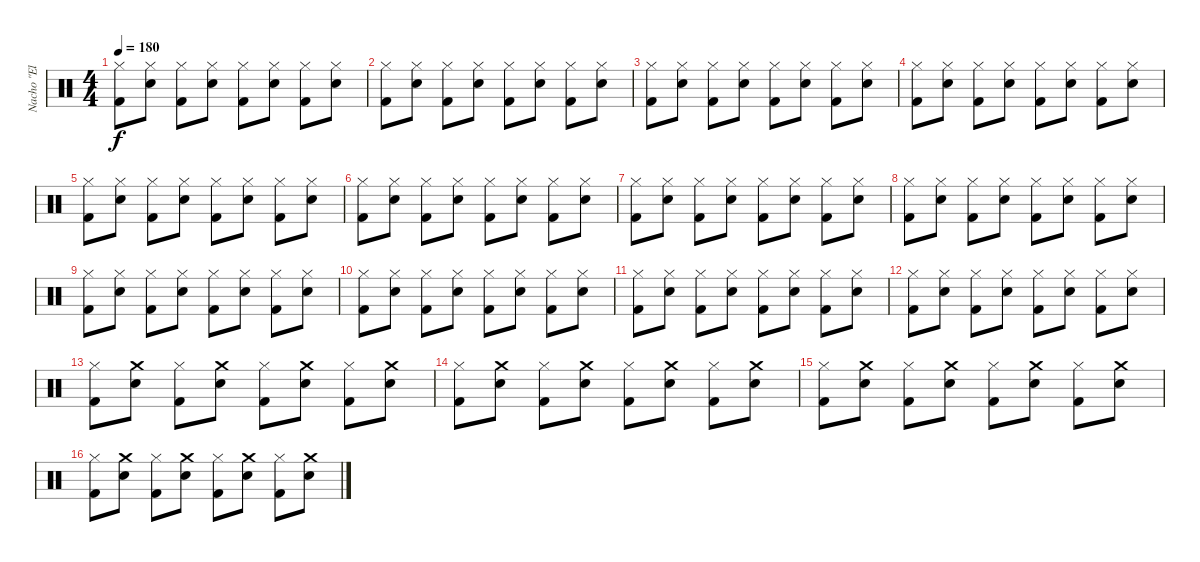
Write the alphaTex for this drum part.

\track ("Nacho \"El Implacable\"Gonzales" "Nacho \"El ") {instrument percussion}
\staff {score}
\articulation defaults
\ts (4 4)
\tempo 180
\clef neutral
\ks c
("Hi-Hat (closed)" "Kick (hit) 2").8{dy f} ("Hi-Hat (closed)" "Electric Snare (hit)").8 ("Hi-Hat (closed)" "Kick (hit) 2").8 ("Hi-Hat (closed)" "Electric Snare (hit)").8 ("Hi-Hat (closed)" "Kick (hit) 2").8 ("Hi-Hat (closed)" "Electric Snare (hit)").8 ("Hi-Hat (closed)" "Kick (hit) 2").8 ("Hi-Hat (closed)" "Electric Snare (hit)").8 |
("Hi-Hat (closed)" "Kick (hit) 2").8 ("Hi-Hat (closed)" "Electric Snare (hit)").8 ("Hi-Hat (closed)" "Kick (hit) 2").8 ("Hi-Hat (closed)" "Electric Snare (hit)").8 ("Hi-Hat (closed)" "Kick (hit) 2").8 ("Hi-Hat (closed)" "Electric Snare (hit)").8 ("Hi-Hat (closed)" "Kick (hit) 2").8 ("Hi-Hat (closed)" "Electric Snare (hit)").8 |
("Hi-Hat (closed)" "Kick (hit) 2").8 ("Hi-Hat (closed)" "Electric Snare (hit)").8 ("Hi-Hat (closed)" "Kick (hit) 2").8 ("Hi-Hat (closed)" "Electric Snare (hit)").8 ("Hi-Hat (closed)" "Kick (hit) 2").8 ("Hi-Hat (closed)" "Electric Snare (hit)").8 ("Hi-Hat (closed)" "Kick (hit) 2").8 ("Hi-Hat (closed)" "Electric Snare (hit)").8 |
("Hi-Hat (closed)" "Kick (hit) 2").8 ("Hi-Hat (closed)" "Electric Snare (hit)").8 ("Hi-Hat (closed)" "Kick (hit) 2").8 ("Hi-Hat (closed)" "Electric Snare (hit)").8 ("Hi-Hat (closed)" "Kick (hit) 2").8 ("Hi-Hat (closed)" "Electric Snare (hit)").8 ("Hi-Hat (closed)" "Kick (hit) 2").8 ("Hi-Hat (closed)" "Electric Snare (hit)").8 |
("Hi-Hat (closed)" "Kick (hit) 2").8 ("Hi-Hat (closed)" "Electric Snare (hit)").8 ("Hi-Hat (closed)" "Kick (hit) 2").8 ("Hi-Hat (closed)" "Electric Snare (hit)").8 ("Hi-Hat (closed)" "Kick (hit) 2").8 ("Hi-Hat (closed)" "Electric Snare (hit)").8 ("Hi-Hat (closed)" "Kick (hit) 2").8 ("Hi-Hat (closed)" "Electric Snare (hit)").8 |
("Hi-Hat (closed)" "Kick (hit) 2").8 ("Hi-Hat (closed)" "Electric Snare (hit)").8 ("Hi-Hat (closed)" "Kick (hit) 2").8 ("Hi-Hat (closed)" "Electric Snare (hit)").8 ("Hi-Hat (closed)" "Kick (hit) 2").8 ("Hi-Hat (closed)" "Electric Snare (hit)").8 ("Hi-Hat (closed)" "Kick (hit) 2").8 ("Hi-Hat (closed)" "Electric Snare (hit)").8 |
("Hi-Hat (closed)" "Kick (hit) 2").8 ("Hi-Hat (closed)" "Electric Snare (hit)").8 ("Hi-Hat (closed)" "Kick (hit) 2").8 ("Hi-Hat (closed)" "Electric Snare (hit)").8 ("Hi-Hat (closed)" "Kick (hit) 2").8 ("Hi-Hat (closed)" "Electric Snare (hit)").8 ("Hi-Hat (closed)" "Kick (hit) 2").8 ("Hi-Hat (closed)" "Electric Snare (hit)").8 |
("Hi-Hat (closed)" "Kick (hit) 2").8 ("Hi-Hat (closed)" "Electric Snare (hit)").8 ("Hi-Hat (closed)" "Kick (hit) 2").8 ("Hi-Hat (closed)" "Electric Snare (hit)").8 ("Hi-Hat (closed)" "Kick (hit) 2").8 ("Hi-Hat (closed)" "Electric Snare (hit)").8 ("Hi-Hat (closed)" "Kick (hit) 2").8 ("Hi-Hat (closed)" "Electric Snare (hit)").8 |
("Hi-Hat (closed)" "Kick (hit) 2").8 ("Hi-Hat (closed)" "Electric Snare (hit)").8 ("Hi-Hat (closed)" "Kick (hit) 2").8 ("Hi-Hat (closed)" "Electric Snare (hit)").8 ("Hi-Hat (closed)" "Kick (hit) 2").8 ("Hi-Hat (closed)" "Electric Snare (hit)").8 ("Hi-Hat (closed)" "Kick (hit) 2").8 ("Hi-Hat (closed)" "Electric Snare (hit)").8 |
("Hi-Hat (closed)" "Kick (hit) 2").8 ("Hi-Hat (closed)" "Electric Snare (hit)").8 ("Hi-Hat (closed)" "Kick (hit) 2").8 ("Hi-Hat (closed)" "Electric Snare (hit)").8 ("Hi-Hat (closed)" "Kick (hit) 2").8 ("Hi-Hat (closed)" "Electric Snare (hit)").8 ("Hi-Hat (closed)" "Kick (hit) 2").8 ("Hi-Hat (closed)" "Electric Snare (hit)").8 |
("Hi-Hat (closed)" "Kick (hit) 2").8 ("Hi-Hat (closed)" "Electric Snare (hit)").8 ("Hi-Hat (closed)" "Kick (hit) 2").8 ("Hi-Hat (closed)" "Electric Snare (hit)").8 ("Hi-Hat (closed)" "Kick (hit) 2").8 ("Hi-Hat (closed)" "Electric Snare (hit)").8 ("Hi-Hat (closed)" "Kick (hit) 2").8 ("Hi-Hat (closed)" "Electric Snare (hit)").8 |
("Hi-Hat (closed)" "Kick (hit) 2").8 ("Hi-Hat (closed)" "Electric Snare (hit)").8 ("Hi-Hat (closed)" "Kick (hit) 2").8 ("Hi-Hat (closed)" "Electric Snare (hit)").8 ("Hi-Hat (closed)" "Kick (hit) 2").8 ("Hi-Hat (closed)" "Electric Snare (hit)").8 ("Hi-Hat (closed)" "Kick (hit) 2").8 ("Hi-Hat (closed)" "Electric Snare (hit)").8 |
("Hi-Hat (closed)" "Kick (hit) 2").8 ("Crash medium (hit)" "Electric Snare (hit)").8 ("Hi-Hat (closed)" "Kick (hit) 2").8 ("Crash medium (hit)" "Electric Snare (hit)").8 ("Hi-Hat (closed)" "Kick (hit) 2").8 ("Crash medium (hit)" "Electric Snare (hit)").8 ("Hi-Hat (closed)" "Kick (hit) 2").8 ("Crash medium (hit)" "Electric Snare (hit)").8 |
("Hi-Hat (closed)" "Kick (hit) 2").8 ("Crash medium (hit)" "Electric Snare (hit)").8 ("Hi-Hat (closed)" "Kick (hit) 2").8 ("Crash medium (hit)" "Electric Snare (hit)").8 ("Hi-Hat (closed)" "Kick (hit) 2").8 ("Crash medium (hit)" "Electric Snare (hit)").8 ("Hi-Hat (closed)" "Kick (hit) 2").8 ("Crash medium (hit)" "Electric Snare (hit)").8 |
("Hi-Hat (closed)" "Kick (hit) 2").8 ("Crash medium (hit)" "Electric Snare (hit)").8 ("Hi-Hat (closed)" "Kick (hit) 2").8 ("Crash medium (hit)" "Electric Snare (hit)").8 ("Hi-Hat (closed)" "Kick (hit) 2").8 ("Crash medium (hit)" "Electric Snare (hit)").8 ("Hi-Hat (closed)" "Kick (hit) 2").8 ("Crash medium (hit)" "Electric Snare (hit)").8 |
("Hi-Hat (closed)" "Kick (hit) 2").8 ("Crash medium (hit)" "Electric Snare (hit)").8 ("Hi-Hat (closed)" "Kick (hit) 2").8 ("Crash medium (hit)" "Electric Snare (hit)").8 ("Hi-Hat (closed)" "Kick (hit) 2").8 ("Crash medium (hit)" "Electric Snare (hit)").8 ("Hi-Hat (closed)" "Kick (hit) 2").8 ("Crash medium (hit)" "Electric Snare (hit)").8
